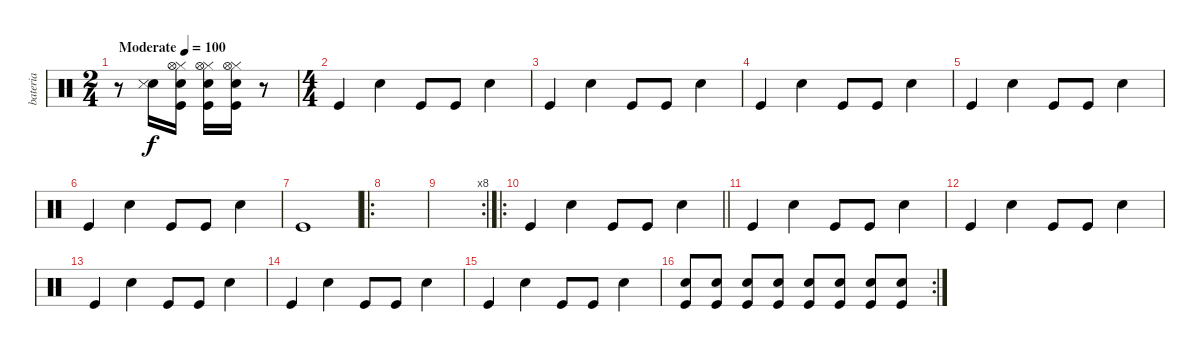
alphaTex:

\track ("bateria" "bateria") {instrument percussion}
\staff {score}
\articulation defaults
\ts (2 4)
\tempo (100 "Moderate")
\clef neutral
\ks c
r.8{dy f} ("Snare (hit) 2" "Snare (side stick) 3").16 ("Kick (hit)" "Snare (hit) 2" "Hi-Hat (closed)" "Hi-Hat (open)").16 ("Kick (hit)" "Snare (hit) 2" "Hi-Hat (closed)" "Hi-Hat (open)").16 ("Kick (hit)" "Snare (hit) 2" "Hi-Hat (closed)" "Hi-Hat (open)").16 r.8 |
\ts (4 4)
"Kick (hit)".4 "Snare (hit) 2".4 "Kick (hit)".8 "Kick (hit)".8 "Snare (hit) 2".4 |
"Kick (hit)".4 "Snare (hit) 2".4 "Kick (hit)".8 "Kick (hit)".8 "Snare (hit) 2".4 |
"Kick (hit)".4 "Snare (hit) 2".4 "Kick (hit)".8 "Kick (hit)".8 "Snare (hit) 2".4 |
"Kick (hit)".4 "Snare (hit) 2".4 "Kick (hit)".8 "Kick (hit)".8 "Snare (hit) 2".4 |
"Kick (hit)".4 "Snare (hit) 2".4 "Kick (hit)".8 "Kick (hit)".8 "Snare (hit) 2".4 |
"Kick (hit)".1 |
\ro
|
\rc 8
|
\ro
\barLineRight lightlight "Kick (hit)".4 "Snare (hit) 2".4 "Kick (hit)".8 "Kick (hit)".8 "Snare (hit) 2".4
|
"Kick (hit)".4 "Snare (hit) 2".4 "Kick (hit)".8 "Kick (hit)".8 "Snare (hit) 2".4 |
"Kick (hit)".4 "Snare (hit) 2".4 "Kick (hit)".8 "Kick (hit)".8 "Snare (hit) 2".4 |
"Kick (hit)".4 "Snare (hit) 2".4 "Kick (hit)".8 "Kick (hit)".8 "Snare (hit) 2".4 |
"Kick (hit)".4 "Snare (hit) 2".4 "Kick (hit)".8 "Kick (hit)".8 "Snare (hit) 2".4 |
"Kick (hit)".4 "Snare (hit) 2".4 "Kick (hit)".8 "Kick (hit)".8 "Snare (hit) 2".4 |
\rc 2
("Kick (hit)" "Snare (hit) 2").8 ("Kick (hit)" "Snare (hit) 2").8 ("Kick (hit)" "Snare (hit) 2").8 ("Kick (hit)" "Snare (hit) 2").8 ("Kick (hit)" "Snare (hit) 2").8 ("Kick (hit)" "Snare (hit) 2").8 ("Kick (hit)" "Snare (hit) 2").8 ("Kick (hit)" "Snare (hit) 2").8
